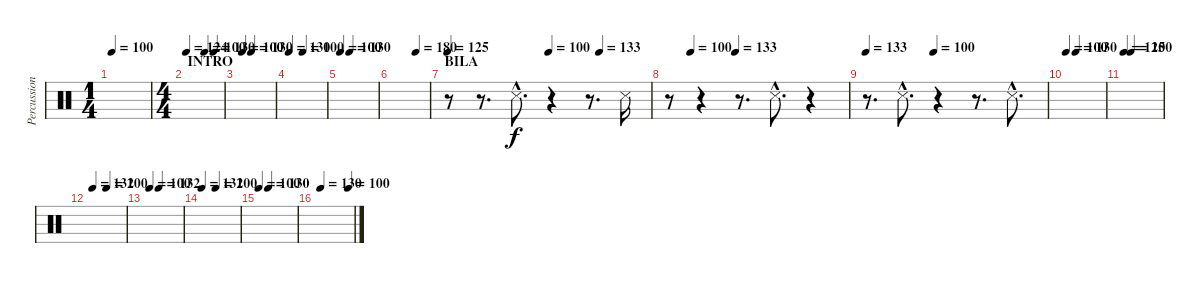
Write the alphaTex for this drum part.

\track ("Percussion" "Percussion") {instrument percussion}
\staff {score}
\articulation defaults
\ts (1 4)
\tempo 100
\tempo 160
\tempo 100
\clef neutral
\ks c
|
\ts (4 4)
\section ("" "INTRO")
\tempo 124
\tempo (100 0.5)
\tempo (130 0.75)
|
\tempo (100 0.125)
\tempo (130 0.375)
|
\tempo 130
\tempo (100 0.375)
|
\tempo 100
\tempo (130 0.25)
|
\tempo (180 0.65625)
|
\section ("" "BILA")
\tempo 125
\tempo (100 0.5)
\tempo (133 0.75)
r.8 r.8{d} "Snare (side stick) 3"{hac}.8{d} r.4 r.8{d} "Snare (side stick) 3".16 |
\tempo (100 0.125)
\tempo (133 0.375)
r.8 r.4 r.8{d} "Snare (side stick) 3"{hac}.8{d} r.4 |
\tempo 133
\tempo (100 0.375)
r.8{d} "Snare (side stick) 3"{hac}.8{d} r.4 r.8{d} "Snare (side stick) 3"{hac}.8{d} |
\tempo 100
\tempo (130 0.25)
|
\tempo 125
\tempo (100 0.1875)
|
\tempo (132 0.125)
\tempo (100 0.5)
|
\tempo (100 0.125)
\tempo (132 0.375)
|
\tempo 132
\tempo (100 0.375)
|
\tempo 100
\tempo (130 0.25)
|
\tempo (130 0.125)
\tempo (100 0.875)
